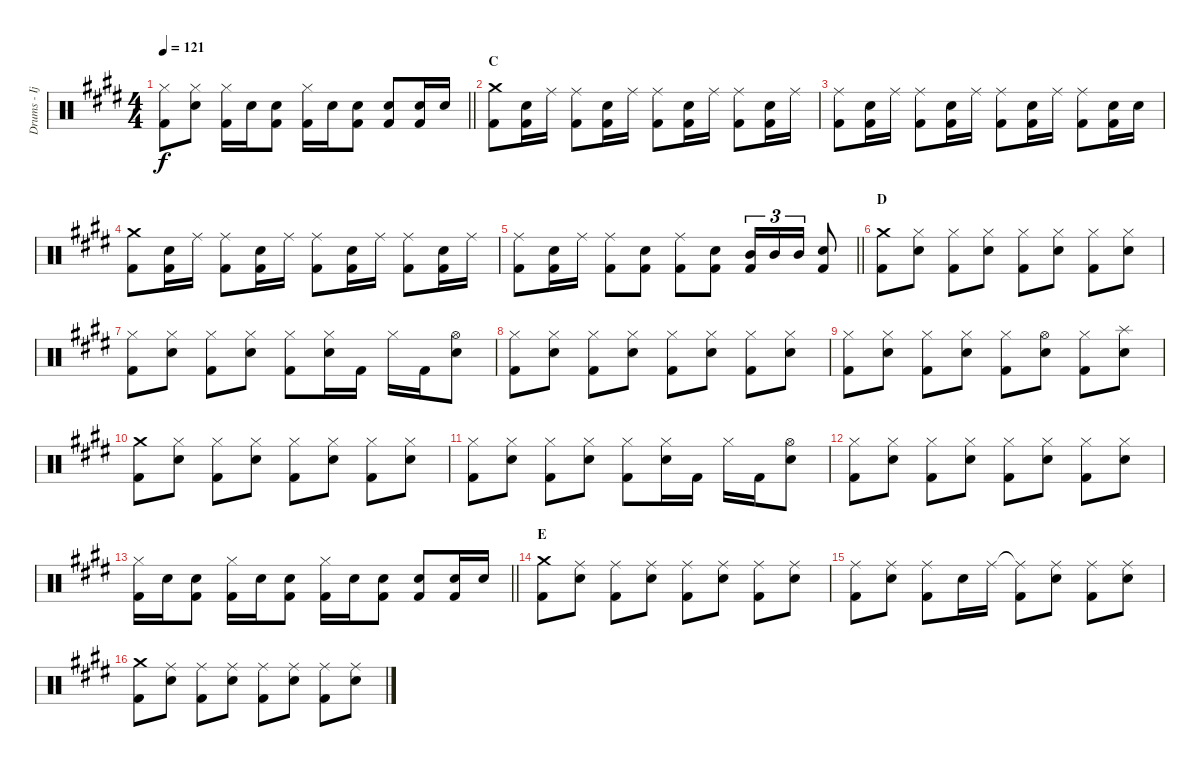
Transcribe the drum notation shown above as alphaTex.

\track ("Drums - Ijichi Kiyoshi" "Drums - Ij") {instrument percussion}
\staff {score}
\articulation defaults
\ts (4 4)
\tempo 121
\clef neutral
\barLineRight lightlight
\ks e
("Hi-Hat (closed)" "Kick (hit) 2").8{dy f} ("Hi-Hat (closed)" "Electric Snare (hit)").8 ("Hi-Hat (closed)" "Kick (hit) 2").16 "Electric Snare (hit)".16 ("Electric Snare (hit)" "Kick (hit) 2").8 ("Hi-Hat (closed)" "Kick (hit) 2").16 "Electric Snare (hit)".16 ("Electric Snare (hit)" "Kick (hit) 2").8 ("Electric Snare (hit)" "Kick (hit) 2").8 ("Electric Snare (hit)" "Kick (hit) 2").16 "Electric Snare (hit)".16 |
\section ("" "C")
("Crash medium (hit)" "Kick (hit) 2").8 ("Electric Snare (hit)" "Kick (hit) 2").16 "Ride (middle)".16 ("Ride (middle)" "Kick (hit) 2").8 ("Electric Snare (hit)" "Kick (hit) 2").16 "Ride (middle)".16 ("Ride (middle)" "Kick (hit) 2").8 ("Electric Snare (hit)" "Kick (hit) 2").16 "Ride (middle)".16 ("Ride (middle)" "Kick (hit) 2").8 ("Electric Snare (hit)" "Kick (hit) 2").16 "Ride (middle)".16 |
("Ride (middle)" "Kick (hit) 2").8 ("Electric Snare (hit)" "Kick (hit) 2").16 "Ride (middle)".16 ("Ride (middle)" "Kick (hit) 2").8 ("Electric Snare (hit)" "Kick (hit) 2").16 "Ride (middle)".16 ("Ride (middle)" "Kick (hit) 2").8 ("Electric Snare (hit)" "Kick (hit) 2").16 "Ride (middle)".16 ("Ride (middle)" "Kick (hit) 2").8 ("Electric Snare (hit)" "Kick (hit) 2").16 "Electric Snare (hit)".16 |
("Crash medium (hit)" "Kick (hit) 2").8 ("Electric Snare (hit)" "Kick (hit) 2").16 "Ride (middle)".16 ("Ride (middle)" "Kick (hit) 2").8 ("Electric Snare (hit)" "Kick (hit) 2").16 "Ride (middle)".16 ("Ride (middle)" "Kick (hit) 2").8 ("Electric Snare (hit)" "Kick (hit) 2").16 "Ride (middle)".16 ("Ride (middle)" "Kick (hit) 2").8 ("Electric Snare (hit)" "Kick (hit) 2").16 "Ride (middle)".16 |
\barLineRight lightlight
("Ride (middle)" "Kick (hit) 2").8 ("Electric Snare (hit)" "Kick (hit) 2").16 "Ride (middle)".16 ("Ride (middle)" "Kick (hit) 2").8 ("Electric Snare (hit)" "Kick (hit) 2").8 ("Ride (middle)" "Kick (hit) 2").8 ("Electric Snare (hit)" "Kick (hit) 2").8 ("Mid Tom (hit)" "Kick (hit) 2").16{tu (3 2)} "Mid Tom (hit)".16{tu (3 2)} "Mid Tom (hit)".16{tu (3 2)} ("Electric Snare (hit)" "Kick (hit) 2").8 |
\section ("" "D")
("Crash medium (hit)" "Kick (hit) 2").8 ("Hi-Hat (closed)" "Electric Snare (hit)").8 ("Hi-Hat (closed)" "Kick (hit) 2").8 ("Hi-Hat (closed)" "Electric Snare (hit)").8 ("Hi-Hat (closed)" "Kick (hit) 2").8 ("Hi-Hat (closed)" "Electric Snare (hit)").8 ("Hi-Hat (closed)" "Kick (hit) 2").8 ("Hi-Hat (closed)" "Electric Snare (hit)").8 |
("Hi-Hat (closed)" "Kick (hit) 2").8 ("Hi-Hat (closed)" "Electric Snare (hit)").8 ("Hi-Hat (closed)" "Kick (hit) 2").8 ("Hi-Hat (closed)" "Electric Snare (hit)").8 ("Hi-Hat (closed)" "Kick (hit) 2").8 ("Hi-Hat (closed)" "Electric Snare (hit)").16 "Kick (hit) 2".16 "Hi-Hat (closed)".16 "Kick (hit) 2".16 ("Hi-Hat (open)" "Electric Snare (hit)").8 |
("Hi-Hat (closed)" "Kick (hit) 2").8 ("Hi-Hat (closed)" "Electric Snare (hit)").8 ("Hi-Hat (closed)" "Kick (hit) 2").8 ("Hi-Hat (closed)" "Electric Snare (hit)").8 ("Hi-Hat (closed)" "Kick (hit) 2").8 ("Hi-Hat (closed)" "Electric Snare (hit)").8 ("Hi-Hat (closed)" "Kick (hit) 2").8 ("Hi-Hat (closed)" "Electric Snare (hit)").8 |
("Hi-Hat (closed)" "Kick (hit) 2").8 ("Hi-Hat (closed)" "Electric Snare (hit)").8 ("Hi-Hat (closed)" "Kick (hit) 2").8 ("Hi-Hat (closed)" "Electric Snare (hit)").8 ("Hi-Hat (closed)" "Kick (hit) 2").8 ("Hi-Hat (open)" "Electric Snare (hit)").8 ("Hi-Hat (closed)" "Kick (hit) 2").8 ("Splash (hit)" "Electric Snare (hit)").8 |
("Crash medium (hit)" "Kick (hit) 2").8 ("Hi-Hat (closed)" "Electric Snare (hit)").8 ("Hi-Hat (closed)" "Kick (hit) 2").8 ("Hi-Hat (closed)" "Electric Snare (hit)").8 ("Hi-Hat (closed)" "Kick (hit) 2").8 ("Hi-Hat (closed)" "Electric Snare (hit)").8 ("Hi-Hat (closed)" "Kick (hit) 2").8 ("Hi-Hat (closed)" "Electric Snare (hit)").8 |
("Hi-Hat (closed)" "Kick (hit) 2").8 ("Hi-Hat (closed)" "Electric Snare (hit)").8 ("Hi-Hat (closed)" "Kick (hit) 2").8 ("Hi-Hat (closed)" "Electric Snare (hit)").8 ("Hi-Hat (closed)" "Kick (hit) 2").8 ("Hi-Hat (closed)" "Electric Snare (hit)").16 "Kick (hit) 2".16 "Hi-Hat (closed)".16 "Kick (hit) 2".16 ("Hi-Hat (open)" "Electric Snare (hit)").8 |
("Hi-Hat (closed)" "Kick (hit) 2").8 ("Hi-Hat (closed)" "Electric Snare (hit)").8 ("Hi-Hat (closed)" "Kick (hit) 2").8 ("Hi-Hat (closed)" "Electric Snare (hit)").8 ("Hi-Hat (closed)" "Kick (hit) 2").8 ("Hi-Hat (closed)" "Electric Snare (hit)").8 ("Hi-Hat (closed)" "Kick (hit) 2").8 ("Hi-Hat (closed)" "Electric Snare (hit)").8 |
\barLineRight lightlight
("Hi-Hat (closed)" "Kick (hit) 2").16 "Electric Snare (hit)".16 ("Electric Snare (hit)" "Kick (hit) 2").8 ("Hi-Hat (closed)" "Kick (hit) 2").16 "Electric Snare (hit)".16 ("Electric Snare (hit)" "Kick (hit) 2").8 ("Hi-Hat (closed)" "Kick (hit) 2").16 "Electric Snare (hit)".16 ("Electric Snare (hit)" "Kick (hit) 2").8 ("Electric Snare (hit)" "Kick (hit) 2").8 ("Electric Snare (hit)" "Kick (hit) 2").16 "Electric Snare (hit)".16 |
\section ("" "E")
("Crash medium (hit)" "Kick (hit) 2").8 ("Ride (middle)" "Electric Snare (hit)").8 ("Ride (middle)" "Kick (hit) 2").8 ("Ride (middle)" "Electric Snare (hit)").8 ("Ride (middle)" "Kick (hit) 2").8 ("Ride (middle)" "Electric Snare (hit)").8 ("Ride (middle)" "Kick (hit) 2").8 ("Ride (middle)" "Electric Snare (hit)").8 |
("Ride (middle)" "Kick (hit) 2").8 ("Ride (middle)" "Electric Snare (hit)").8 ("Ride (middle)" "Kick (hit) 2").8 "Electric Snare (hit)".16 "Ride (middle)".16 ("Ride (middle)"{t} "Kick (hit) 2").8 ("Ride (middle)" "Electric Snare (hit)").8 ("Ride (middle)" "Kick (hit) 2").8 ("Ride (middle)" "Electric Snare (hit)").8 |
("Crash medium (hit)" "Kick (hit) 2").8 ("Ride (middle)" "Electric Snare (hit)").8 ("Ride (middle)" "Kick (hit) 2").8 ("Ride (middle)" "Electric Snare (hit)").8 ("Ride (middle)" "Kick (hit) 2").8 ("Ride (middle)" "Electric Snare (hit)").8 ("Ride (middle)" "Kick (hit) 2").8 ("Ride (middle)" "Electric Snare (hit)").8
